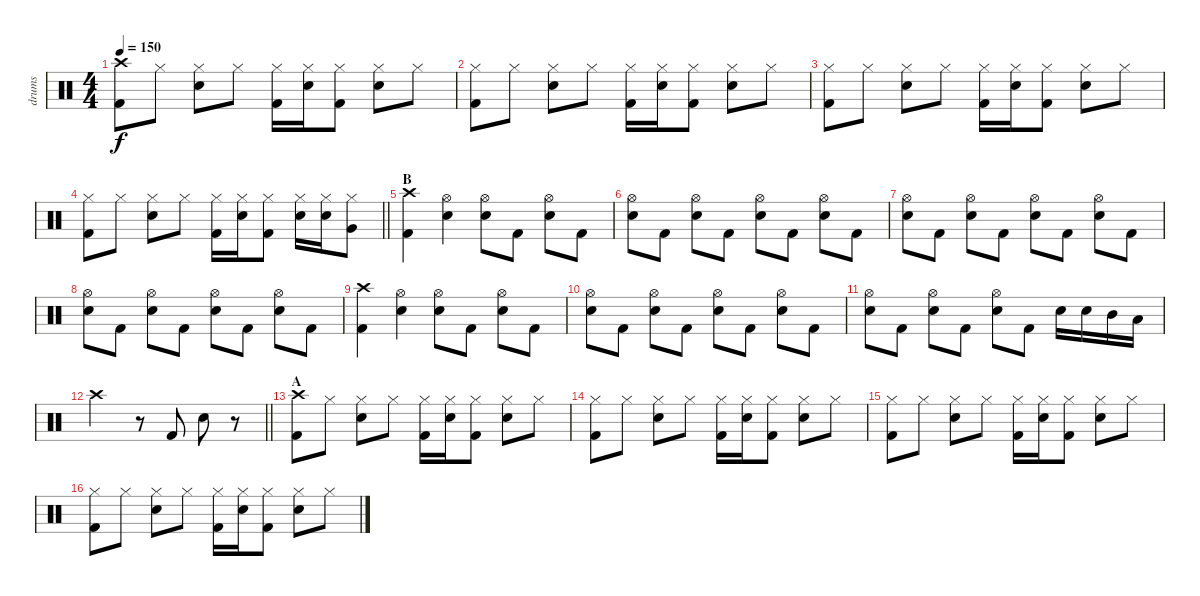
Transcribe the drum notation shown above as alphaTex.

\track ("drums" "drums") {instrument percussion}
\staff {score}
\articulation defaults
\ts (4 4)
\tempo 150
\clef neutral
\ks c
("Crash high (hit)" "Kick (hit) 2").8{dy f} "Hi-Hat (closed)".8 ("Hi-Hat (closed)" "Electric Snare (hit)").8 "Hi-Hat (closed)".8 ("Hi-Hat (closed)" "Kick (hit) 2").16 ("Hi-Hat (closed)" "Electric Snare (hit)").16 ("Hi-Hat (closed)" "Kick (hit) 2").8 ("Hi-Hat (closed)" "Electric Snare (hit)").8 "Hi-Hat (closed)".8 |
("Hi-Hat (closed)" "Kick (hit) 2").8 "Hi-Hat (closed)".8 ("Hi-Hat (closed)" "Electric Snare (hit)").8 "Hi-Hat (closed)".8 ("Hi-Hat (closed)" "Kick (hit) 2").16 ("Hi-Hat (closed)" "Electric Snare (hit)").16 ("Hi-Hat (closed)" "Kick (hit) 2").8 ("Hi-Hat (closed)" "Electric Snare (hit)").8 "Hi-Hat (closed)".8 |
("Hi-Hat (closed)" "Kick (hit) 2").8 "Hi-Hat (closed)".8 ("Hi-Hat (closed)" "Electric Snare (hit)").8 "Hi-Hat (closed)".8 ("Hi-Hat (closed)" "Kick (hit) 2").16 ("Hi-Hat (closed)" "Electric Snare (hit)").16 ("Hi-Hat (closed)" "Kick (hit) 2").8 ("Hi-Hat (closed)" "Electric Snare (hit)").8 "Hi-Hat (closed)".8 |
\barLineRight lightlight
("Hi-Hat (closed)" "Kick (hit) 2").8 "Hi-Hat (closed)".8 ("Hi-Hat (closed)" "Electric Snare (hit)").8 "Hi-Hat (closed)".8 ("Hi-Hat (closed)" "Kick (hit) 2").16 ("Hi-Hat (closed)" "Electric Snare (hit)").16 ("Hi-Hat (closed)" "Kick (hit) 2").8 ("Hi-Hat (closed)" "Electric Snare (hit)").16 ("Hi-Hat (closed)" "Electric Snare (hit)").16 ("Hi-Hat (closed)" "Very Low Tom (hit)").8 |
\section ("" "B")
("Crash high (hit)" "Kick (hit) 2").4 ("Hi-Hat (open)" "Electric Snare (hit)").4 ("Hi-Hat (open)" "Electric Snare (hit)").8 "Kick (hit) 2".8 ("Hi-Hat (open)" "Electric Snare (hit)").8 "Kick (hit) 2".8 |
("Hi-Hat (open)" "Electric Snare (hit)").8 "Kick (hit) 2".8 ("Hi-Hat (open)" "Electric Snare (hit)").8 "Kick (hit) 2".8 ("Hi-Hat (open)" "Electric Snare (hit)").8 "Kick (hit) 2".8 ("Hi-Hat (open)" "Electric Snare (hit)").8 "Kick (hit) 2".8 |
("Hi-Hat (open)" "Electric Snare (hit)").8 "Kick (hit) 2".8 ("Hi-Hat (open)" "Electric Snare (hit)").8 "Kick (hit) 2".8 ("Hi-Hat (open)" "Electric Snare (hit)").8 "Kick (hit) 2".8 ("Hi-Hat (open)" "Electric Snare (hit)").8 "Kick (hit) 2".8 |
("Hi-Hat (open)" "Electric Snare (hit)").8 "Kick (hit) 2".8 ("Hi-Hat (open)" "Electric Snare (hit)").8 "Kick (hit) 2".8 ("Hi-Hat (open)" "Electric Snare (hit)").8 "Kick (hit) 2".8 ("Hi-Hat (open)" "Electric Snare (hit)").8 "Kick (hit) 2".8 |
("Crash high (hit)" "Kick (hit) 2").4 ("Hi-Hat (open)" "Electric Snare (hit)").4 ("Hi-Hat (open)" "Electric Snare (hit)").8 "Kick (hit) 2".8 ("Hi-Hat (open)" "Electric Snare (hit)").8 "Kick (hit) 2".8 |
("Hi-Hat (open)" "Electric Snare (hit)").8 "Kick (hit) 2".8 ("Hi-Hat (open)" "Electric Snare (hit)").8 "Kick (hit) 2".8 ("Hi-Hat (open)" "Electric Snare (hit)").8 "Kick (hit) 2".8 ("Hi-Hat (open)" "Electric Snare (hit)").8 "Kick (hit) 2".8 |
("Hi-Hat (open)" "Electric Snare (hit)").8 "Kick (hit) 2".8 ("Hi-Hat (open)" "Electric Snare (hit)").8 "Kick (hit) 2".8 ("Hi-Hat (open)" "Electric Snare (hit)").8 "Kick (hit) 2".8 "Electric Snare (hit)".16 "Electric Snare (hit)".16 "Mid Tom (hit)".16 "Low Tom (hit)".16 |
\barLineRight lightlight "Crash high (hit)".2
r.8 "Kick (hit) 2".8 "Electric Snare (hit)".8 r.8 |
\section ("" "A")
("Crash high (hit)" "Kick (hit) 2").8 "Hi-Hat (closed)".8 ("Hi-Hat (closed)" "Electric Snare (hit)").8 "Hi-Hat (closed)".8 ("Hi-Hat (closed)" "Kick (hit) 2").16 ("Hi-Hat (closed)" "Electric Snare (hit)").16 ("Hi-Hat (closed)" "Kick (hit) 2").8 ("Hi-Hat (closed)" "Electric Snare (hit)").8 "Hi-Hat (closed)".8 |
("Hi-Hat (closed)" "Kick (hit) 2").8 "Hi-Hat (closed)".8 ("Hi-Hat (closed)" "Electric Snare (hit)").8 "Hi-Hat (closed)".8 ("Hi-Hat (closed)" "Kick (hit) 2").16 ("Hi-Hat (closed)" "Electric Snare (hit)").16 ("Hi-Hat (closed)" "Kick (hit) 2").8 ("Hi-Hat (closed)" "Electric Snare (hit)").8 "Hi-Hat (closed)".8 |
("Hi-Hat (closed)" "Kick (hit) 2").8 "Hi-Hat (closed)".8 ("Hi-Hat (closed)" "Electric Snare (hit)").8 "Hi-Hat (closed)".8 ("Hi-Hat (closed)" "Kick (hit) 2").16 ("Hi-Hat (closed)" "Electric Snare (hit)").16 ("Hi-Hat (closed)" "Kick (hit) 2").8 ("Hi-Hat (closed)" "Electric Snare (hit)").8 "Hi-Hat (closed)".8 |
("Hi-Hat (closed)" "Kick (hit) 2").8 "Hi-Hat (closed)".8 ("Hi-Hat (closed)" "Electric Snare (hit)").8 "Hi-Hat (closed)".8 ("Hi-Hat (closed)" "Kick (hit) 2").16 ("Hi-Hat (closed)" "Electric Snare (hit)").16 ("Hi-Hat (closed)" "Kick (hit) 2").8 ("Hi-Hat (closed)" "Electric Snare (hit)").8 "Hi-Hat (closed)".8
